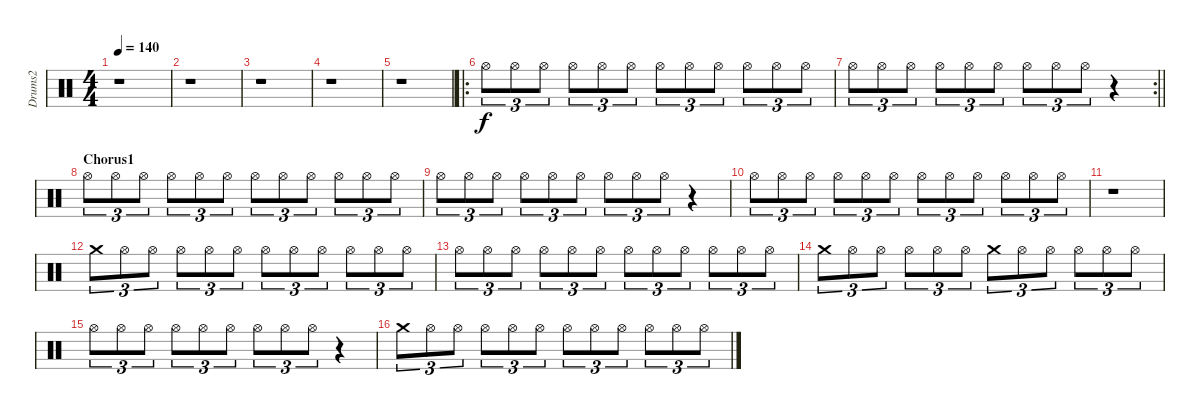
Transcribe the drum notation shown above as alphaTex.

\track ("Drums2" "Drums2") {instrument percussion}
\staff {score}
\articulation defaults
\ts (4 4)
\tempo 140
\clef neutral
\ks c
r.1{dy f} |
r.1 |
r.1 |
r.1 |
r.1 |
\ro "Hi-Hat (open)".8{tu (3 2)} "Hi-Hat (open)".8{tu (3 2)} "Hi-Hat (open)".8{tu (3 2)} "Hi-Hat (open)".8{tu (3 2)} "Hi-Hat (open)".8{tu (3 2)} "Hi-Hat (open)".8{tu (3 2)} "Hi-Hat (open)".8{tu (3 2)} "Hi-Hat (open)".8{tu (3 2)} "Hi-Hat (open)".8{tu (3 2)} "Hi-Hat (open)".8{tu (3 2)} "Hi-Hat (open)".8{tu (3 2)} "Hi-Hat (open)".8{tu (3 2)}
|
\rc 2
\barLineRight lightlight "Hi-Hat (open)".8{tu (3 2)} "Hi-Hat (open)".8{tu (3 2)} "Hi-Hat (open)".8{tu (3 2)} "Hi-Hat (open)".8{tu (3 2)} "Hi-Hat (open)".8{tu (3 2)} "Hi-Hat (open)".8{tu (3 2)} "Hi-Hat (open)".8{tu (3 2)} "Hi-Hat (open)".8{tu (3 2)} "Hi-Hat (open)".8{tu (3 2)}
r.4 |
\section ("" "Chorus1")
"Hi-Hat (open)".8{tu (3 2)} "Hi-Hat (open)".8{tu (3 2)} "Hi-Hat (open)".8{tu (3 2)} "Hi-Hat (open)".8{tu (3 2)} "Hi-Hat (open)".8{tu (3 2)} "Hi-Hat (open)".8{tu (3 2)} "Hi-Hat (open)".8{tu (3 2)} "Hi-Hat (open)".8{tu (3 2)} "Hi-Hat (open)".8{tu (3 2)} "Hi-Hat (open)".8{tu (3 2)} "Hi-Hat (open)".8{tu (3 2)} "Hi-Hat (open)".8{tu (3 2)} |
"Hi-Hat (open)".8{tu (3 2)} "Hi-Hat (open)".8{tu (3 2)} "Hi-Hat (open)".8{tu (3 2)} "Hi-Hat (open)".8{tu (3 2)} "Hi-Hat (open)".8{tu (3 2)} "Hi-Hat (open)".8{tu (3 2)} "Hi-Hat (open)".8{tu (3 2)} "Hi-Hat (open)".8{tu (3 2)} "Hi-Hat (open)".8{tu (3 2)} r.4 |
"Hi-Hat (open)".8{tu (3 2)} "Hi-Hat (open)".8{tu (3 2)} "Hi-Hat (open)".8{tu (3 2)} "Hi-Hat (open)".8{tu (3 2)} "Hi-Hat (open)".8{tu (3 2)} "Hi-Hat (open)".8{tu (3 2)} "Hi-Hat (open)".8{tu (3 2)} "Hi-Hat (open)".8{tu (3 2)} "Hi-Hat (open)".8{tu (3 2)} "Hi-Hat (open)".8{tu (3 2)} "Hi-Hat (open)".8{tu (3 2)} "Hi-Hat (open)".8{tu (3 2)} |
r.1 |
"Crash medium (hit)".8{tu (3 2)} "Hi-Hat (open)".8{tu (3 2)} "Hi-Hat (open)".8{tu (3 2)} "Hi-Hat (open)".8{tu (3 2)} "Hi-Hat (open)".8{tu (3 2)} "Hi-Hat (open)".8{tu (3 2)} "Hi-Hat (open)".8{tu (3 2)} "Hi-Hat (open)".8{tu (3 2)} "Hi-Hat (open)".8{tu (3 2)} "Hi-Hat (open)".8{tu (3 2)} "Hi-Hat (open)".8{tu (3 2)} "Hi-Hat (open)".8{tu (3 2)} |
"Hi-Hat (open)".8{tu (3 2)} "Hi-Hat (open)".8{tu (3 2)} "Hi-Hat (open)".8{tu (3 2)} "Hi-Hat (open)".8{tu (3 2)} "Hi-Hat (open)".8{tu (3 2)} "Hi-Hat (open)".8{tu (3 2)} "Hi-Hat (open)".8{tu (3 2)} "Hi-Hat (open)".8{tu (3 2)} "Hi-Hat (open)".8{tu (3 2)} "Hi-Hat (open)".8{tu (3 2)} "Hi-Hat (open)".8{tu (3 2)} "Hi-Hat (open)".8{tu (3 2)} |
"Crash medium (hit)".8{tu (3 2)} "Hi-Hat (open)".8{tu (3 2)} "Hi-Hat (open)".8{tu (3 2)} "Hi-Hat (open)".8{tu (3 2)} "Hi-Hat (open)".8{tu (3 2)} "Hi-Hat (open)".8{tu (3 2)} "Crash medium (hit)".8{tu (3 2)} "Hi-Hat (open)".8{tu (3 2)} "Hi-Hat (open)".8{tu (3 2)} "Hi-Hat (open)".8{tu (3 2)} "Hi-Hat (open)".8{tu (3 2)} "Hi-Hat (open)".8{tu (3 2)} |
"Hi-Hat (open)".8{tu (3 2)} "Hi-Hat (open)".8{tu (3 2)} "Hi-Hat (open)".8{tu (3 2)} "Hi-Hat (open)".8{tu (3 2)} "Hi-Hat (open)".8{tu (3 2)} "Hi-Hat (open)".8{tu (3 2)} "Hi-Hat (open)".8{tu (3 2)} "Hi-Hat (open)".8{tu (3 2)} "Hi-Hat (open)".8{tu (3 2)} r.4 |
"Crash medium (hit)".8{tu (3 2)} "Hi-Hat (open)".8{tu (3 2)} "Hi-Hat (open)".8{tu (3 2)} "Hi-Hat (open)".8{tu (3 2)} "Hi-Hat (open)".8{tu (3 2)} "Hi-Hat (open)".8{tu (3 2)} "Hi-Hat (open)".8{tu (3 2)} "Hi-Hat (open)".8{tu (3 2)} "Hi-Hat (open)".8{tu (3 2)} "Hi-Hat (open)".8{tu (3 2)} "Hi-Hat (open)".8{tu (3 2)} "Hi-Hat (open)".8{tu (3 2)}
